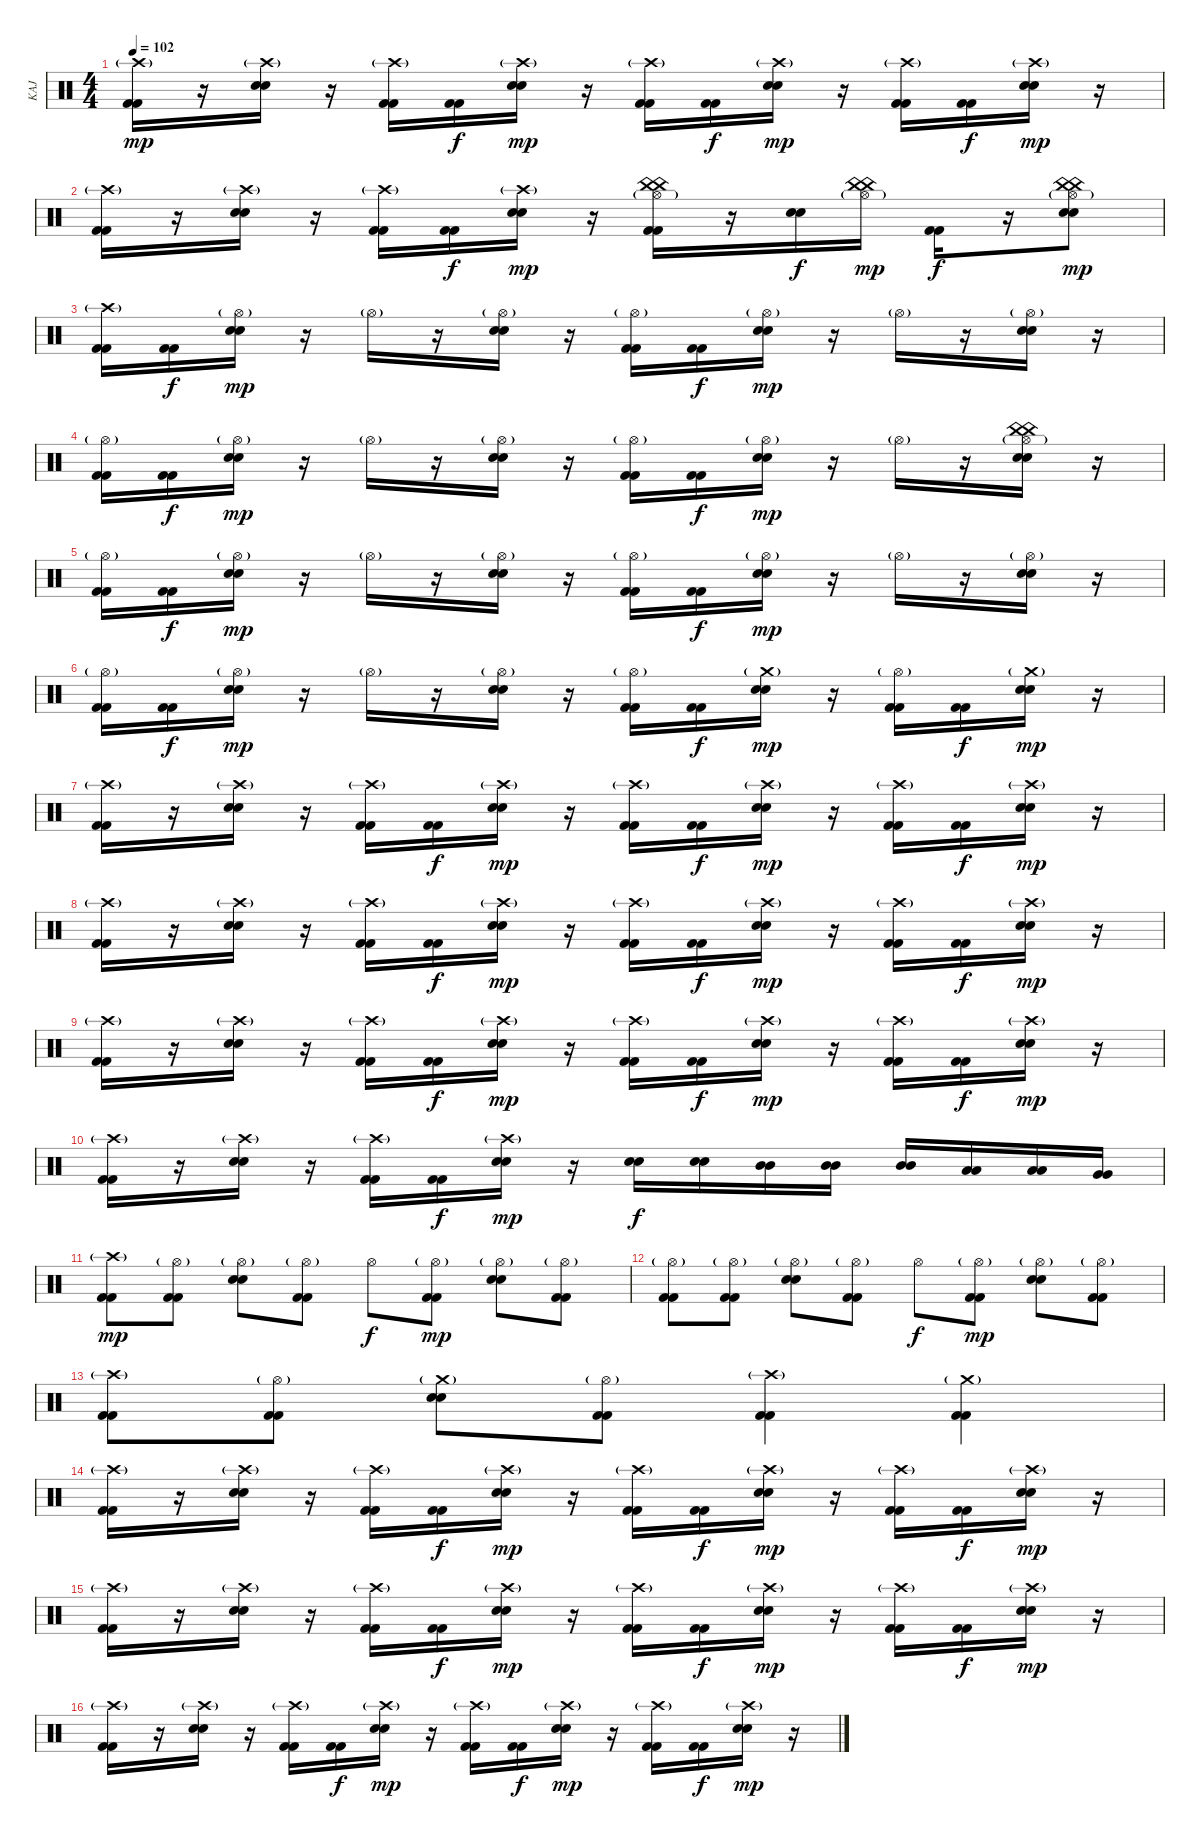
\track ("KAJ" "KAJ") {instrument percussion}
\staff {score}
\articulation defaults
\ts (4 4)
\tempo 102
\clef neutral
\ks c
("Crash high (hit)"{g} "Kick (hit) 2" "Kick (hit) 2").16{dy mp} r.16 ("Crash high (hit)"{g} "Electric Snare (hit)" "Electric Snare (hit)").16 r.16 ("Crash high (hit)"{g} "Kick (hit) 2" "Kick (hit) 2").16 ("Kick (hit) 2" "Kick (hit) 2").16{dy f} ("Crash high (hit)"{g} "Electric Snare (hit)" "Electric Snare (hit)").16{dy mp} r.16 ("Crash high (hit)"{g} "Kick (hit) 2" "Kick (hit) 2").16 ("Kick (hit) 2" "Kick (hit) 2").16{dy f} ("Crash high (hit)"{g} "Electric Snare (hit)" "Electric Snare (hit)").16{dy mp} r.16 ("Crash high (hit)"{g} "Kick (hit) 2" "Kick (hit) 2").16 ("Kick (hit) 2" "Kick (hit) 2").16{dy f} ("Crash high (hit)"{g} "Electric Snare (hit)" "Electric Snare (hit)").16{dy mp} r.16 |
("Crash high (hit)"{g} "Kick (hit) 2" "Kick (hit) 2").16 r.16 ("Crash high (hit)"{g} "Electric Snare (hit)" "Electric Snare (hit)").16 r.16 ("Crash high (hit)"{g} "Kick (hit) 2" "Kick (hit) 2").16 ("Kick (hit) 2" "Kick (hit) 2").16{dy f} ("Crash high (hit)"{g} "Electric Snare (hit)" "Electric Snare (hit)").16{dy mp} r.16 ("Hi-Hat (open)"{g} "China (hit)" "China (hit)" "Kick (hit) 2" "Kick (hit) 2").16 r.16 ("Electric Snare (hit)" "Electric Snare (hit)").16{dy f} ("Hi-Hat (open)"{g} "China (hit)" "China (hit)").16{dy mp} ("Kick (hit) 2" "Kick (hit) 2").16{dy f} r.16 ("Hi-Hat (open)"{g} "China (hit)" "China (hit)" "Electric Snare (hit)" "Electric Snare (hit)").8{dy mp} |
("Crash high (hit)"{g} "Kick (hit) 2" "Kick (hit) 2").16 ("Kick (hit) 2" "Kick (hit) 2").16{dy f} ("Hi-Hat (open)"{g} "Electric Snare (hit)" "Electric Snare (hit)").16{dy mp} r.16 "Hi-Hat (open)"{g}.16 r.16 ("Hi-Hat (open)"{g} "Electric Snare (hit)" "Electric Snare (hit)").16 r.16 ("Hi-Hat (open)"{g} "Kick (hit) 2" "Kick (hit) 2").16 ("Kick (hit) 2" "Kick (hit) 2").16{dy f} ("Hi-Hat (open)"{g} "Electric Snare (hit)" "Electric Snare (hit)").16{dy mp} r.16 "Hi-Hat (open)"{g}.16 r.16 ("Hi-Hat (open)"{g} "Electric Snare (hit)" "Electric Snare (hit)").16 r.16 |
("Hi-Hat (open)"{g} "Kick (hit) 2" "Kick (hit) 2").16 ("Kick (hit) 2" "Kick (hit) 2").16{dy f} ("Hi-Hat (open)"{g} "Electric Snare (hit)" "Electric Snare (hit)").16{dy mp} r.16 "Hi-Hat (open)"{g}.16 r.16 ("Hi-Hat (open)"{g} "Electric Snare (hit)" "Electric Snare (hit)").16 r.16 ("Hi-Hat (open)"{g} "Kick (hit) 2" "Kick (hit) 2").16 ("Kick (hit) 2" "Kick (hit) 2").16{dy f} ("Hi-Hat (open)"{g} "Electric Snare (hit)" "Electric Snare (hit)").16{dy mp} r.16 "Hi-Hat (open)"{g}.16 r.16 ("Hi-Hat (open)"{g} "China (hit)" "China (hit)" "Electric Snare (hit)" "Electric Snare (hit)").16 r.16 |
("Hi-Hat (open)"{g} "Kick (hit) 2" "Kick (hit) 2").16 ("Kick (hit) 2" "Kick (hit) 2").16{dy f} ("Hi-Hat (open)"{g} "Electric Snare (hit)" "Electric Snare (hit)").16{dy mp} r.16 "Hi-Hat (open)"{g}.16 r.16 ("Hi-Hat (open)"{g} "Electric Snare (hit)" "Electric Snare (hit)").16 r.16 ("Hi-Hat (open)"{g} "Kick (hit) 2" "Kick (hit) 2").16 ("Kick (hit) 2" "Kick (hit) 2").16{dy f} ("Hi-Hat (open)"{g} "Electric Snare (hit)" "Electric Snare (hit)").16{dy mp} r.16 "Hi-Hat (open)"{g}.16 r.16 ("Hi-Hat (open)"{g} "Electric Snare (hit)" "Electric Snare (hit)").16 r.16 |
("Hi-Hat (open)"{g} "Kick (hit) 2" "Kick (hit) 2").16 ("Kick (hit) 2" "Kick (hit) 2").16{dy f} ("Hi-Hat (open)"{g} "Electric Snare (hit)" "Electric Snare (hit)").16{dy mp} r.16 "Hi-Hat (open)"{g}.16 r.16 ("Hi-Hat (open)"{g} "Electric Snare (hit)" "Electric Snare (hit)").16 r.16 ("Hi-Hat (open)"{g} "Kick (hit) 2" "Kick (hit) 2").16 ("Kick (hit) 2" "Kick (hit) 2").16{dy f} ("Crash medium (hit)"{g} "Electric Snare (hit)" "Electric Snare (hit)").16{dy mp} r.16 ("Hi-Hat (open)"{g} "Kick (hit) 2" "Kick (hit) 2").16 ("Kick (hit) 2" "Kick (hit) 2").16{dy f} ("Crash medium (hit)"{g} "Electric Snare (hit)" "Electric Snare (hit)").16{dy mp} r.16 |
("Crash high (hit)"{g} "Kick (hit) 2" "Kick (hit) 2").16 r.16 ("Crash high (hit)"{g} "Electric Snare (hit)" "Electric Snare (hit)").16 r.16 ("Crash high (hit)"{g} "Kick (hit) 2" "Kick (hit) 2").16 ("Kick (hit) 2" "Kick (hit) 2").16{dy f} ("Crash high (hit)"{g} "Electric Snare (hit)" "Electric Snare (hit)").16{dy mp} r.16 ("Crash high (hit)"{g} "Kick (hit) 2" "Kick (hit) 2").16 ("Kick (hit) 2" "Kick (hit) 2").16{dy f} ("Crash high (hit)"{g} "Electric Snare (hit)" "Electric Snare (hit)").16{dy mp} r.16 ("Crash high (hit)"{g} "Kick (hit) 2" "Kick (hit) 2").16 ("Kick (hit) 2" "Kick (hit) 2").16{dy f} ("Crash high (hit)"{g} "Electric Snare (hit)" "Electric Snare (hit)").16{dy mp} r.16 |
("Crash high (hit)"{g} "Kick (hit) 2" "Kick (hit) 2").16 r.16 ("Crash high (hit)"{g} "Electric Snare (hit)" "Electric Snare (hit)").16 r.16 ("Crash high (hit)"{g} "Kick (hit) 2" "Kick (hit) 2").16 ("Kick (hit) 2" "Kick (hit) 2").16{dy f} ("Crash high (hit)"{g} "Electric Snare (hit)" "Electric Snare (hit)").16{dy mp} r.16 ("Crash high (hit)"{g} "Kick (hit) 2" "Kick (hit) 2").16 ("Kick (hit) 2" "Kick (hit) 2").16{dy f} ("Crash high (hit)"{g} "Electric Snare (hit)" "Electric Snare (hit)").16{dy mp} r.16 ("Crash high (hit)"{g} "Kick (hit) 2" "Kick (hit) 2").16 ("Kick (hit) 2" "Kick (hit) 2").16{dy f} ("Crash high (hit)"{g} "Electric Snare (hit)" "Electric Snare (hit)").16{dy mp} r.16 |
("Crash high (hit)"{g} "Kick (hit) 2" "Kick (hit) 2").16 r.16 ("Crash high (hit)"{g} "Electric Snare (hit)" "Electric Snare (hit)").16 r.16 ("Crash high (hit)"{g} "Kick (hit) 2" "Kick (hit) 2").16 ("Kick (hit) 2" "Kick (hit) 2").16{dy f} ("Crash high (hit)"{g} "Electric Snare (hit)" "Electric Snare (hit)").16{dy mp} r.16 ("Crash high (hit)"{g} "Kick (hit) 2" "Kick (hit) 2").16 ("Kick (hit) 2" "Kick (hit) 2").16{dy f} ("Crash high (hit)"{g} "Electric Snare (hit)" "Electric Snare (hit)").16{dy mp} r.16 ("Crash high (hit)"{g} "Kick (hit) 2" "Kick (hit) 2").16 ("Kick (hit) 2" "Kick (hit) 2").16{dy f} ("Crash high (hit)"{g} "Electric Snare (hit)" "Electric Snare (hit)").16{dy mp} r.16 |
("Crash high (hit)"{g} "Kick (hit) 2" "Kick (hit) 2").16 r.16 ("Crash high (hit)"{g} "Electric Snare (hit)" "Electric Snare (hit)").16 r.16 ("Crash high (hit)"{g} "Kick (hit) 2" "Kick (hit) 2").16 ("Kick (hit) 2" "Kick (hit) 2").16{dy f} ("Crash high (hit)"{g} "Electric Snare (hit)" "Electric Snare (hit)").16{dy mp} r.16 ("Electric Snare (hit)" "Electric Snare (hit)").16{dy f} ("Electric Snare (hit)" "Electric Snare (hit)").16 ("Mid Tom (hit)" "Mid Tom (hit)").16 ("Mid Tom (hit)" "Mid Tom (hit)").16 ("Mid Tom (hit)" "Mid Tom (hit)").16 ("Low Tom (hit)" "Low Tom (hit)").16 ("Low Tom (hit)" "Low Tom (hit)").16 ("Very Low Tom (hit)" "Very Low Tom (hit)").16 |
("Crash high (hit)"{g} "Kick (hit) 2" "Kick (hit) 2").8{dy mp} ("Hi-Hat (open)"{g} "Kick (hit) 2" "Kick (hit) 2").8 ("Hi-Hat (open)"{g} "Electric Snare (hit)" "Electric Snare (hit)").8 ("Hi-Hat (open)"{g} "Kick (hit) 2" "Kick (hit) 2").8 "Hi-Hat (open)".8{dy f} ("Hi-Hat (open)"{g} "Kick (hit) 2" "Kick (hit) 2").8{dy mp} ("Hi-Hat (open)"{g} "Electric Snare (hit)" "Electric Snare (hit)").8 ("Hi-Hat (open)"{g} "Kick (hit) 2" "Kick (hit) 2").8 |
("Hi-Hat (open)"{g} "Kick (hit) 2" "Kick (hit) 2").8 ("Hi-Hat (open)"{g} "Kick (hit) 2" "Kick (hit) 2").8 ("Hi-Hat (open)"{g} "Electric Snare (hit)" "Electric Snare (hit)").8 ("Hi-Hat (open)"{g} "Kick (hit) 2" "Kick (hit) 2").8 "Hi-Hat (open)".8{dy f} ("Hi-Hat (open)"{g} "Kick (hit) 2" "Kick (hit) 2").8{dy mp} ("Hi-Hat (open)"{g} "Electric Snare (hit)" "Electric Snare (hit)").8 ("Hi-Hat (open)"{g} "Kick (hit) 2" "Kick (hit) 2").8 |
("Crash high (hit)"{g} "Kick (hit) 2" "Kick (hit) 2").8 ("Hi-Hat (open)"{g} "Kick (hit) 2" "Kick (hit) 2").8 ("Crash medium (hit)"{g} "Electric Snare (hit)" "Electric Snare (hit)").8 ("Hi-Hat (open)"{g} "Kick (hit) 2" "Kick (hit) 2").8 ("Crash high (hit)"{g} "Kick (hit) 2" "Kick (hit) 2").4 ("Crash medium (hit)"{g} "Kick (hit) 2" "Kick (hit) 2").4 |
("Crash high (hit)"{g} "Kick (hit) 2" "Kick (hit) 2").16 r.16 ("Crash high (hit)"{g} "Electric Snare (hit)" "Electric Snare (hit)").16 r.16 ("Crash high (hit)"{g} "Kick (hit) 2" "Kick (hit) 2").16 ("Kick (hit) 2" "Kick (hit) 2").16{dy f} ("Crash high (hit)"{g} "Electric Snare (hit)" "Electric Snare (hit)").16{dy mp} r.16 ("Crash high (hit)"{g} "Kick (hit) 2" "Kick (hit) 2").16 ("Kick (hit) 2" "Kick (hit) 2").16{dy f} ("Crash high (hit)"{g} "Electric Snare (hit)" "Electric Snare (hit)").16{dy mp} r.16 ("Crash high (hit)"{g} "Kick (hit) 2" "Kick (hit) 2").16 ("Kick (hit) 2" "Kick (hit) 2").16{dy f} ("Crash high (hit)"{g} "Electric Snare (hit)" "Electric Snare (hit)").16{dy mp} r.16 |
("Crash high (hit)"{g} "Kick (hit) 2" "Kick (hit) 2").16 r.16 ("Crash high (hit)"{g} "Electric Snare (hit)" "Electric Snare (hit)").16 r.16 ("Crash high (hit)"{g} "Kick (hit) 2" "Kick (hit) 2").16 ("Kick (hit) 2" "Kick (hit) 2").16{dy f} ("Crash high (hit)"{g} "Electric Snare (hit)" "Electric Snare (hit)").16{dy mp} r.16 ("Crash high (hit)"{g} "Kick (hit) 2" "Kick (hit) 2").16 ("Kick (hit) 2" "Kick (hit) 2").16{dy f} ("Crash high (hit)"{g} "Electric Snare (hit)" "Electric Snare (hit)").16{dy mp} r.16 ("Crash high (hit)"{g} "Kick (hit) 2" "Kick (hit) 2").16 ("Kick (hit) 2" "Kick (hit) 2").16{dy f} ("Crash high (hit)"{g} "Electric Snare (hit)" "Electric Snare (hit)").16{dy mp} r.16 |
("Crash high (hit)"{g} "Kick (hit) 2" "Kick (hit) 2").16 r.16 ("Crash high (hit)"{g} "Electric Snare (hit)" "Electric Snare (hit)").16 r.16 ("Crash high (hit)"{g} "Kick (hit) 2" "Kick (hit) 2").16 ("Kick (hit) 2" "Kick (hit) 2").16{dy f} ("Crash high (hit)"{g} "Electric Snare (hit)" "Electric Snare (hit)").16{dy mp} r.16 ("Crash high (hit)"{g} "Kick (hit) 2" "Kick (hit) 2").16 ("Kick (hit) 2" "Kick (hit) 2").16{dy f} ("Crash high (hit)"{g} "Electric Snare (hit)" "Electric Snare (hit)").16{dy mp} r.16 ("Crash high (hit)"{g} "Kick (hit) 2" "Kick (hit) 2").16 ("Kick (hit) 2" "Kick (hit) 2").16{dy f} ("Crash high (hit)"{g} "Electric Snare (hit)" "Electric Snare (hit)").16{dy mp} r.16
